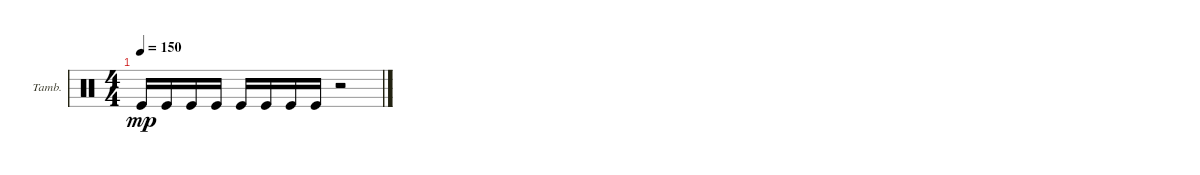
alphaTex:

\defaultSystemsLayout 4
\bracketExtendMode groupsimilarinstruments
\firstSystemTrackNameOrientation horizontal
\otherSystemsTrackNameOrientation horizontal
\track ("Tambourine" "Tamb.") {instrument percussion}
\staff {score}
\articulation defaults
\ts (4 4)
\tempo 150
\clef neutral
\ks c "Kick (hit)".16{dy mp} "Kick (hit)".16 "Kick (hit)".16 "Kick (hit)".16 "Kick (hit)".16 "Kick (hit)".16 "Kick (hit)".16 "Kick (hit)".16
r.2
